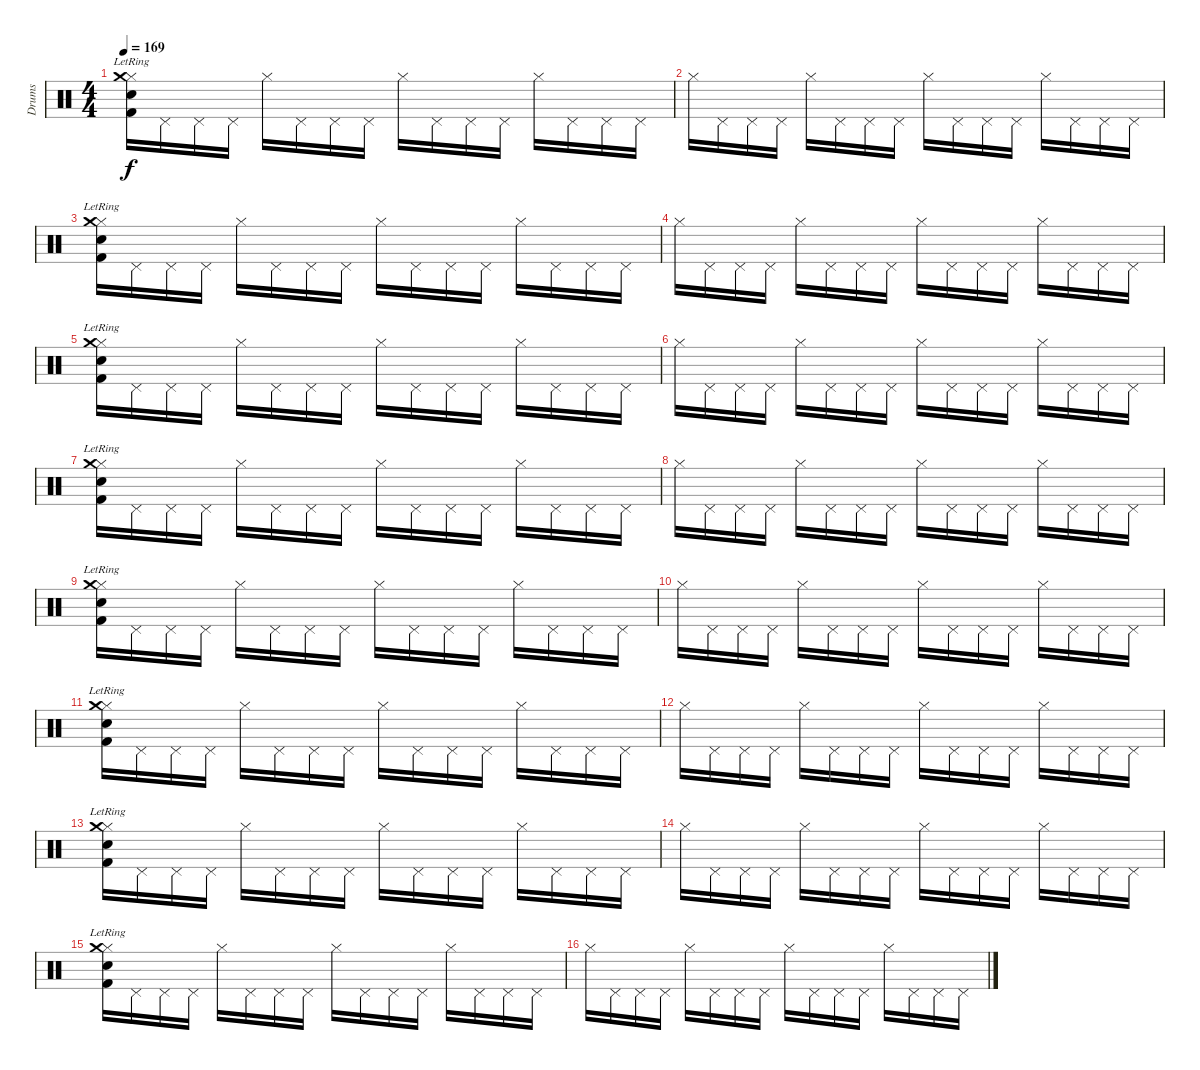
\track ("Drums" "Drums") {instrument percussion}
\staff {score}
\articulation defaults
\ts (4 4)
\tempo 169
\clef neutral
\ks c
("Hi-Hat (closed)" "Kick (hit) 2"{lr} "Crash medium (hit)"{lr} "Snare (hit) 2"{lr}).16{dy f} "Pedal Hi-Hat (hit)".16 "Pedal Hi-Hat (hit)".16 "Pedal Hi-Hat (hit)".16 "Hi-Hat (closed)".16 "Pedal Hi-Hat (hit)".16 "Pedal Hi-Hat (hit)".16 "Pedal Hi-Hat (hit)".16 "Hi-Hat (closed)".16 "Pedal Hi-Hat (hit)".16 "Pedal Hi-Hat (hit)".16 "Pedal Hi-Hat (hit)".16 "Hi-Hat (closed)".16 "Pedal Hi-Hat (hit)".16 "Pedal Hi-Hat (hit)".16 "Pedal Hi-Hat (hit)".16 |
"Hi-Hat (closed)".16 "Pedal Hi-Hat (hit)".16 "Pedal Hi-Hat (hit)".16 "Pedal Hi-Hat (hit)".16 "Hi-Hat (closed)".16 "Pedal Hi-Hat (hit)".16 "Pedal Hi-Hat (hit)".16 "Pedal Hi-Hat (hit)".16 "Hi-Hat (closed)".16 "Pedal Hi-Hat (hit)".16 "Pedal Hi-Hat (hit)".16 "Pedal Hi-Hat (hit)".16 "Hi-Hat (closed)".16 "Pedal Hi-Hat (hit)".16 "Pedal Hi-Hat (hit)".16 "Pedal Hi-Hat (hit)".16 |
("Hi-Hat (closed)" "Kick (hit) 2"{lr} "Crash medium (hit)"{lr} "Snare (hit) 2"{lr}).16 "Pedal Hi-Hat (hit)".16 "Pedal Hi-Hat (hit)".16 "Pedal Hi-Hat (hit)".16 "Hi-Hat (closed)".16 "Pedal Hi-Hat (hit)".16 "Pedal Hi-Hat (hit)".16 "Pedal Hi-Hat (hit)".16 "Hi-Hat (closed)".16 "Pedal Hi-Hat (hit)".16 "Pedal Hi-Hat (hit)".16 "Pedal Hi-Hat (hit)".16 "Hi-Hat (closed)".16 "Pedal Hi-Hat (hit)".16 "Pedal Hi-Hat (hit)".16 "Pedal Hi-Hat (hit)".16 |
"Hi-Hat (closed)".16 "Pedal Hi-Hat (hit)".16 "Pedal Hi-Hat (hit)".16 "Pedal Hi-Hat (hit)".16 "Hi-Hat (closed)".16 "Pedal Hi-Hat (hit)".16 "Pedal Hi-Hat (hit)".16 "Pedal Hi-Hat (hit)".16 "Hi-Hat (closed)".16 "Pedal Hi-Hat (hit)".16 "Pedal Hi-Hat (hit)".16 "Pedal Hi-Hat (hit)".16 "Hi-Hat (closed)".16 "Pedal Hi-Hat (hit)".16 "Pedal Hi-Hat (hit)".16 "Pedal Hi-Hat (hit)".16 |
("Hi-Hat (closed)" "Kick (hit) 2"{lr} "Crash medium (hit)"{lr} "Snare (hit) 2"{lr}).16 "Pedal Hi-Hat (hit)".16 "Pedal Hi-Hat (hit)".16 "Pedal Hi-Hat (hit)".16 "Hi-Hat (closed)".16 "Pedal Hi-Hat (hit)".16 "Pedal Hi-Hat (hit)".16 "Pedal Hi-Hat (hit)".16 "Hi-Hat (closed)".16 "Pedal Hi-Hat (hit)".16 "Pedal Hi-Hat (hit)".16 "Pedal Hi-Hat (hit)".16 "Hi-Hat (closed)".16 "Pedal Hi-Hat (hit)".16 "Pedal Hi-Hat (hit)".16 "Pedal Hi-Hat (hit)".16 |
"Hi-Hat (closed)".16 "Pedal Hi-Hat (hit)".16 "Pedal Hi-Hat (hit)".16 "Pedal Hi-Hat (hit)".16 "Hi-Hat (closed)".16 "Pedal Hi-Hat (hit)".16 "Pedal Hi-Hat (hit)".16 "Pedal Hi-Hat (hit)".16 "Hi-Hat (closed)".16 "Pedal Hi-Hat (hit)".16 "Pedal Hi-Hat (hit)".16 "Pedal Hi-Hat (hit)".16 "Hi-Hat (closed)".16 "Pedal Hi-Hat (hit)".16 "Pedal Hi-Hat (hit)".16 "Pedal Hi-Hat (hit)".16 |
("Hi-Hat (closed)" "Kick (hit) 2"{lr} "Crash medium (hit)"{lr} "Snare (hit) 2"{lr}).16 "Pedal Hi-Hat (hit)".16 "Pedal Hi-Hat (hit)".16 "Pedal Hi-Hat (hit)".16 "Hi-Hat (closed)".16 "Pedal Hi-Hat (hit)".16 "Pedal Hi-Hat (hit)".16 "Pedal Hi-Hat (hit)".16 "Hi-Hat (closed)".16 "Pedal Hi-Hat (hit)".16 "Pedal Hi-Hat (hit)".16 "Pedal Hi-Hat (hit)".16 "Hi-Hat (closed)".16 "Pedal Hi-Hat (hit)".16 "Pedal Hi-Hat (hit)".16 "Pedal Hi-Hat (hit)".16 |
"Hi-Hat (closed)".16 "Pedal Hi-Hat (hit)".16 "Pedal Hi-Hat (hit)".16 "Pedal Hi-Hat (hit)".16 "Hi-Hat (closed)".16 "Pedal Hi-Hat (hit)".16 "Pedal Hi-Hat (hit)".16 "Pedal Hi-Hat (hit)".16 "Hi-Hat (closed)".16 "Pedal Hi-Hat (hit)".16 "Pedal Hi-Hat (hit)".16 "Pedal Hi-Hat (hit)".16 "Hi-Hat (closed)".16 "Pedal Hi-Hat (hit)".16 "Pedal Hi-Hat (hit)".16 "Pedal Hi-Hat (hit)".16 |
("Hi-Hat (closed)" "Kick (hit) 2"{lr} "Crash medium (hit)"{lr} "Snare (hit) 2"{lr}).16 "Pedal Hi-Hat (hit)".16 "Pedal Hi-Hat (hit)".16 "Pedal Hi-Hat (hit)".16 "Hi-Hat (closed)".16 "Pedal Hi-Hat (hit)".16 "Pedal Hi-Hat (hit)".16 "Pedal Hi-Hat (hit)".16 "Hi-Hat (closed)".16 "Pedal Hi-Hat (hit)".16 "Pedal Hi-Hat (hit)".16 "Pedal Hi-Hat (hit)".16 "Hi-Hat (closed)".16 "Pedal Hi-Hat (hit)".16 "Pedal Hi-Hat (hit)".16 "Pedal Hi-Hat (hit)".16 |
"Hi-Hat (closed)".16 "Pedal Hi-Hat (hit)".16 "Pedal Hi-Hat (hit)".16 "Pedal Hi-Hat (hit)".16 "Hi-Hat (closed)".16 "Pedal Hi-Hat (hit)".16 "Pedal Hi-Hat (hit)".16 "Pedal Hi-Hat (hit)".16 "Hi-Hat (closed)".16 "Pedal Hi-Hat (hit)".16 "Pedal Hi-Hat (hit)".16 "Pedal Hi-Hat (hit)".16 "Hi-Hat (closed)".16 "Pedal Hi-Hat (hit)".16 "Pedal Hi-Hat (hit)".16 "Pedal Hi-Hat (hit)".16 |
("Hi-Hat (closed)" "Kick (hit) 2"{lr} "Crash medium (hit)"{lr} "Snare (hit) 2"{lr}).16 "Pedal Hi-Hat (hit)".16 "Pedal Hi-Hat (hit)".16 "Pedal Hi-Hat (hit)".16 "Hi-Hat (closed)".16 "Pedal Hi-Hat (hit)".16 "Pedal Hi-Hat (hit)".16 "Pedal Hi-Hat (hit)".16 "Hi-Hat (closed)".16 "Pedal Hi-Hat (hit)".16 "Pedal Hi-Hat (hit)".16 "Pedal Hi-Hat (hit)".16 "Hi-Hat (closed)".16 "Pedal Hi-Hat (hit)".16 "Pedal Hi-Hat (hit)".16 "Pedal Hi-Hat (hit)".16 |
"Hi-Hat (closed)".16 "Pedal Hi-Hat (hit)".16 "Pedal Hi-Hat (hit)".16 "Pedal Hi-Hat (hit)".16 "Hi-Hat (closed)".16 "Pedal Hi-Hat (hit)".16 "Pedal Hi-Hat (hit)".16 "Pedal Hi-Hat (hit)".16 "Hi-Hat (closed)".16 "Pedal Hi-Hat (hit)".16 "Pedal Hi-Hat (hit)".16 "Pedal Hi-Hat (hit)".16 "Hi-Hat (closed)".16 "Pedal Hi-Hat (hit)".16 "Pedal Hi-Hat (hit)".16 "Pedal Hi-Hat (hit)".16 |
("Hi-Hat (closed)" "Kick (hit) 2"{lr} "Crash medium (hit)"{lr} "Snare (hit) 2"{lr}).16 "Pedal Hi-Hat (hit)".16 "Pedal Hi-Hat (hit)".16 "Pedal Hi-Hat (hit)".16 "Hi-Hat (closed)".16 "Pedal Hi-Hat (hit)".16 "Pedal Hi-Hat (hit)".16 "Pedal Hi-Hat (hit)".16 "Hi-Hat (closed)".16 "Pedal Hi-Hat (hit)".16 "Pedal Hi-Hat (hit)".16 "Pedal Hi-Hat (hit)".16 "Hi-Hat (closed)".16 "Pedal Hi-Hat (hit)".16 "Pedal Hi-Hat (hit)".16 "Pedal Hi-Hat (hit)".16 |
"Hi-Hat (closed)".16 "Pedal Hi-Hat (hit)".16 "Pedal Hi-Hat (hit)".16 "Pedal Hi-Hat (hit)".16 "Hi-Hat (closed)".16 "Pedal Hi-Hat (hit)".16 "Pedal Hi-Hat (hit)".16 "Pedal Hi-Hat (hit)".16 "Hi-Hat (closed)".16 "Pedal Hi-Hat (hit)".16 "Pedal Hi-Hat (hit)".16 "Pedal Hi-Hat (hit)".16 "Hi-Hat (closed)".16 "Pedal Hi-Hat (hit)".16 "Pedal Hi-Hat (hit)".16 "Pedal Hi-Hat (hit)".16 |
("Hi-Hat (closed)" "Kick (hit) 2"{lr} "Crash medium (hit)"{lr} "Snare (hit) 2"{lr}).16 "Pedal Hi-Hat (hit)".16 "Pedal Hi-Hat (hit)".16 "Pedal Hi-Hat (hit)".16 "Hi-Hat (closed)".16 "Pedal Hi-Hat (hit)".16 "Pedal Hi-Hat (hit)".16 "Pedal Hi-Hat (hit)".16 "Hi-Hat (closed)".16 "Pedal Hi-Hat (hit)".16 "Pedal Hi-Hat (hit)".16 "Pedal Hi-Hat (hit)".16 "Hi-Hat (closed)".16 "Pedal Hi-Hat (hit)".16 "Pedal Hi-Hat (hit)".16 "Pedal Hi-Hat (hit)".16 |
"Hi-Hat (closed)".16 "Pedal Hi-Hat (hit)".16 "Pedal Hi-Hat (hit)".16 "Pedal Hi-Hat (hit)".16 "Hi-Hat (closed)".16 "Pedal Hi-Hat (hit)".16 "Pedal Hi-Hat (hit)".16 "Pedal Hi-Hat (hit)".16 "Hi-Hat (closed)".16 "Pedal Hi-Hat (hit)".16 "Pedal Hi-Hat (hit)".16 "Pedal Hi-Hat (hit)".16 "Hi-Hat (closed)".16 "Pedal Hi-Hat (hit)".16 "Pedal Hi-Hat (hit)".16 "Pedal Hi-Hat (hit)".16
